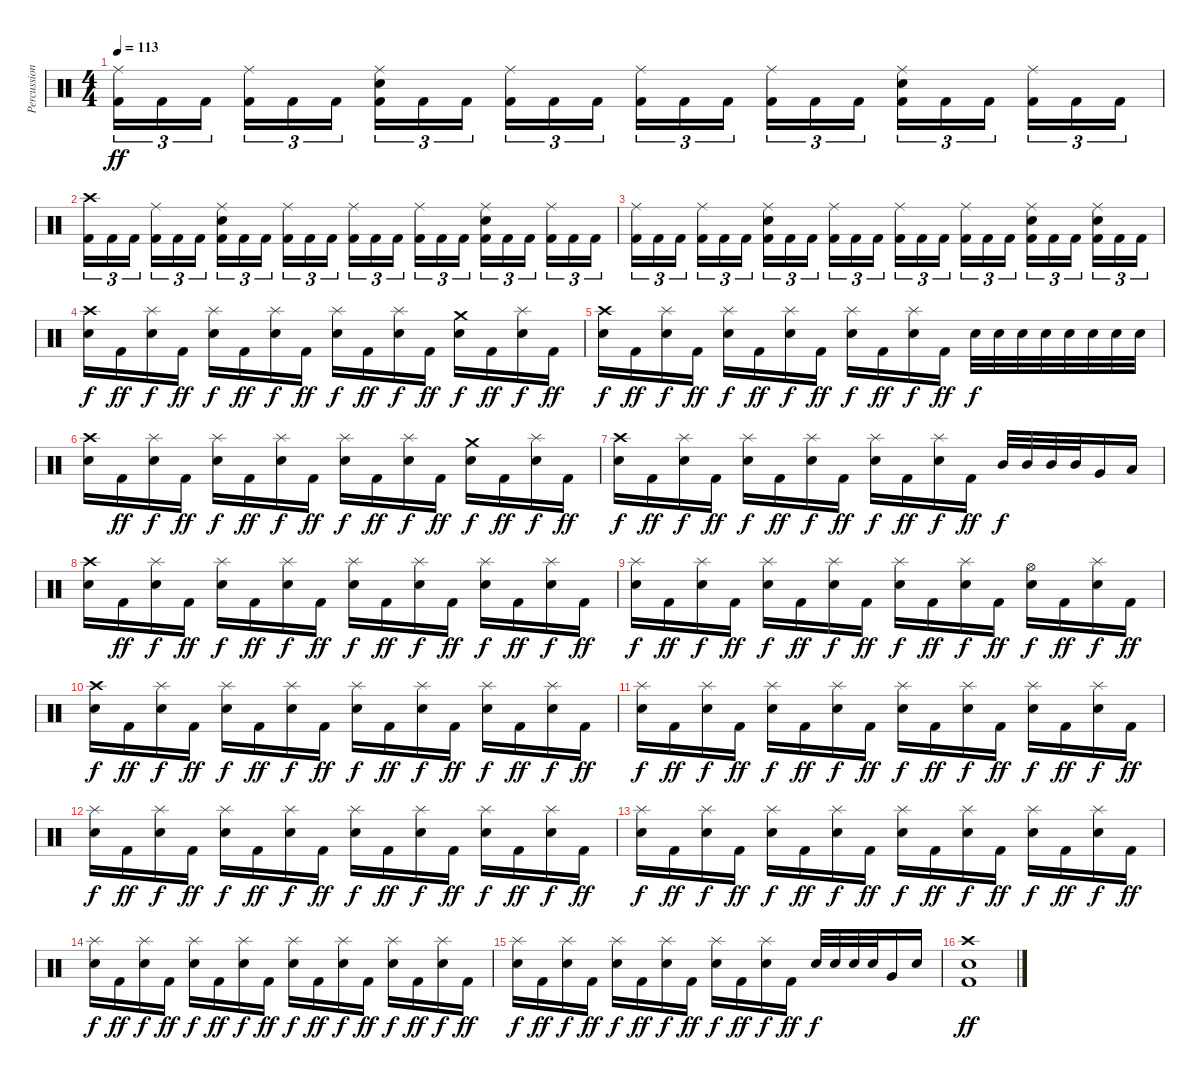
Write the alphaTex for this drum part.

\track ("Percussion" "Percussion") {instrument percussion}
\staff {score}
\articulation defaults
\ts (4 4)
\tempo 113
\clef neutral
\ks c
("Ride (middle)" "Kick (hit) 2").16{tu (3 2) dy ff} "Kick (hit) 2".16{tu (3 2)} "Kick (hit) 2".16{tu (3 2)} ("Ride (middle)" "Kick (hit) 2").16{tu (3 2)} "Kick (hit) 2".16{tu (3 2)} "Kick (hit) 2".16{tu (3 2)} ("Ride (middle)" "Electric Snare (hit)" "Kick (hit) 2").16{tu (3 2)} "Kick (hit) 2".16{tu (3 2)} "Kick (hit) 2".16{tu (3 2)} ("Ride (middle)" "Kick (hit) 2").16{tu (3 2)} "Kick (hit) 2".16{tu (3 2)} "Kick (hit) 2".16{tu (3 2)} ("Ride (middle)" "Kick (hit) 2").16{tu (3 2)} "Kick (hit) 2".16{tu (3 2)} "Kick (hit) 2".16{tu (3 2)} ("Ride (middle)" "Kick (hit) 2").16{tu (3 2)} "Kick (hit) 2".16{tu (3 2)} "Kick (hit) 2".16{tu (3 2)} ("Ride (middle)" "Electric Snare (hit)" "Kick (hit) 2").16{tu (3 2)} "Kick (hit) 2".16{tu (3 2)} "Kick (hit) 2".16{tu (3 2)} ("Ride (middle)" "Kick (hit) 2").16{tu (3 2)} "Kick (hit) 2".16{tu (3 2)} "Kick (hit) 2".16{tu (3 2)} |
("Crash high (hit)" "Kick (hit) 2").16{tu (3 2)} "Kick (hit) 2".16{tu (3 2)} "Kick (hit) 2".16{tu (3 2)} ("Ride (middle)" "Kick (hit) 2").16{tu (3 2)} "Kick (hit) 2".16{tu (3 2)} "Kick (hit) 2".16{tu (3 2)} ("Ride (middle)" "Electric Snare (hit)" "Kick (hit) 2").16{tu (3 2)} "Kick (hit) 2".16{tu (3 2)} "Kick (hit) 2".16{tu (3 2)} ("Ride (middle)" "Kick (hit) 2").16{tu (3 2)} "Kick (hit) 2".16{tu (3 2)} "Kick (hit) 2".16{tu (3 2)} ("Ride (middle)" "Kick (hit) 2").16{tu (3 2)} "Kick (hit) 2".16{tu (3 2)} "Kick (hit) 2".16{tu (3 2)} ("Ride (middle)" "Kick (hit) 2").16{tu (3 2)} "Kick (hit) 2".16{tu (3 2)} "Kick (hit) 2".16{tu (3 2)} ("Ride (middle)" "Electric Snare (hit)" "Kick (hit) 2").16{tu (3 2)} "Kick (hit) 2".16{tu (3 2)} "Kick (hit) 2".16{tu (3 2)} ("Ride (middle)" "Kick (hit) 2").16{tu (3 2)} "Kick (hit) 2".16{tu (3 2)} "Kick (hit) 2".16{tu (3 2)} |
("Ride (middle)" "Kick (hit) 2").16{tu (3 2)} "Kick (hit) 2".16{tu (3 2)} "Kick (hit) 2".16{tu (3 2)} ("Ride (middle)" "Kick (hit) 2").16{tu (3 2)} "Kick (hit) 2".16{tu (3 2)} "Kick (hit) 2".16{tu (3 2)} ("Ride (middle)" "Electric Snare (hit)" "Kick (hit) 2").16{tu (3 2)} "Kick (hit) 2".16{tu (3 2)} "Kick (hit) 2".16{tu (3 2)} ("Ride (middle)" "Kick (hit) 2").16{tu (3 2)} "Kick (hit) 2".16{tu (3 2)} "Kick (hit) 2".16{tu (3 2)} ("Ride (middle)" "Kick (hit) 2").16{tu (3 2)} "Kick (hit) 2".16{tu (3 2)} "Kick (hit) 2".16{tu (3 2)} ("Ride (middle)" "Kick (hit) 2").16{tu (3 2)} "Kick (hit) 2".16{tu (3 2)} "Kick (hit) 2".16{tu (3 2)} ("Ride (middle)" "Electric Snare (hit)" "Kick (hit) 2").16{tu (3 2)} "Kick (hit) 2".16{tu (3 2)} "Kick (hit) 2".16{tu (3 2)} ("Ride (middle)" "Electric Snare (hit)" "Kick (hit) 2").16{tu (3 2)} "Kick (hit) 2".16{tu (3 2)} "Kick (hit) 2".16{tu (3 2)} |
("Crash high (hit)" "Electric Snare (hit)").16{dy f} "Kick (hit) 2".16{dy ff} ("Splash (hit)" "Electric Snare (hit)").16{dy f} "Kick (hit) 2".16{dy ff} ("Splash (hit)" "Electric Snare (hit)").16{dy f} "Kick (hit) 2".16{dy ff} ("Splash (hit)" "Electric Snare (hit)").16{dy f} "Kick (hit) 2".16{dy ff} ("Splash (hit)" "Electric Snare (hit)").16{dy f} "Kick (hit) 2".16{dy ff} ("Splash (hit)" "Electric Snare (hit)").16{dy f} "Kick (hit) 2".16{dy ff} ("Crash medium (hit)" "Electric Snare (hit)").16{dy f} "Kick (hit) 2".16{dy ff} ("Splash (hit)" "Electric Snare (hit)").16{dy f} "Kick (hit) 2".16{dy ff} |
("Crash high (hit)" "Electric Snare (hit)").16{dy f} "Kick (hit) 2".16{dy ff} ("Splash (hit)" "Electric Snare (hit)").16{dy f} "Kick (hit) 2".16{dy ff} ("Splash (hit)" "Electric Snare (hit)").16{dy f} "Kick (hit) 2".16{dy ff} ("Splash (hit)" "Electric Snare (hit)").16{dy f} "Kick (hit) 2".16{dy ff} ("Splash (hit)" "Electric Snare (hit)").16{dy f} "Kick (hit) 2".16{dy ff} ("Splash (hit)" "Electric Snare (hit)").16{dy f} "Kick (hit) 2".16{dy ff} "Electric Snare (hit)".32{dy f} "Electric Snare (hit)".32 "Electric Snare (hit)".32 "Electric Snare (hit)".32 "Electric Snare (hit)".32 "Electric Snare (hit)".32 "Electric Snare (hit)".32 "Electric Snare (hit)".32 |
("Crash high (hit)" "Electric Snare (hit)").16 "Kick (hit) 2".16{dy ff} ("Splash (hit)" "Electric Snare (hit)").16{dy f} "Kick (hit) 2".16{dy ff} ("Splash (hit)" "Electric Snare (hit)").16{dy f} "Kick (hit) 2".16{dy ff} ("Splash (hit)" "Electric Snare (hit)").16{dy f} "Kick (hit) 2".16{dy ff} ("Splash (hit)" "Electric Snare (hit)").16{dy f} "Kick (hit) 2".16{dy ff} ("Splash (hit)" "Electric Snare (hit)").16{dy f} "Kick (hit) 2".16{dy ff} ("Crash medium (hit)" "Electric Snare (hit)").16{dy f} "Kick (hit) 2".16{dy ff} ("Splash (hit)" "Electric Snare (hit)").16{dy f} "Kick (hit) 2".16{dy ff} |
("Crash high (hit)" "Electric Snare (hit)").16{dy f} "Kick (hit) 2".16{dy ff} ("Splash (hit)" "Electric Snare (hit)").16{dy f} "Kick (hit) 2".16{dy ff} ("Splash (hit)" "Electric Snare (hit)").16{dy f} "Kick (hit) 2".16{dy ff} ("Splash (hit)" "Electric Snare (hit)").16{dy f} "Kick (hit) 2".16{dy ff} ("Splash (hit)" "Electric Snare (hit)").16{dy f} "Kick (hit) 2".16{dy ff} ("Splash (hit)" "Electric Snare (hit)").16{dy f} "Kick (hit) 2".16{dy ff} "Mid Tom (hit)".32{dy f} "Mid Tom (hit)".32 "Mid Tom (hit)".32 "Mid Tom (hit)".32 "Very Low Tom (hit)".16 "Low Tom (hit)".16 |
("Crash high (hit)" "Electric Snare (hit)").16 "Kick (hit) 2".16{dy ff} ("Splash (hit)" "Electric Snare (hit)").16{dy f} "Kick (hit) 2".16{dy ff} ("Splash (hit)" "Electric Snare (hit)").16{dy f} "Kick (hit) 2".16{dy ff} ("Splash (hit)" "Electric Snare (hit)").16{dy f} "Kick (hit) 2".16{dy ff} ("Splash (hit)" "Electric Snare (hit)").16{dy f} "Kick (hit) 2".16{dy ff} ("Splash (hit)" "Electric Snare (hit)").16{dy f} "Kick (hit) 2".16{dy ff} ("Splash (hit)" "Electric Snare (hit)").16{dy f} "Kick (hit) 2".16{dy ff} ("Splash (hit)" "Electric Snare (hit)").16{dy f} "Kick (hit) 2".16{dy ff} |
("Splash (hit)" "Electric Snare (hit)").16{dy f} "Kick (hit) 2".16{dy ff} ("Splash (hit)" "Electric Snare (hit)").16{dy f} "Kick (hit) 2".16{dy ff} ("Splash (hit)" "Electric Snare (hit)").16{dy f} "Kick (hit) 2".16{dy ff} ("Splash (hit)" "Electric Snare (hit)").16{dy f} "Kick (hit) 2".16{dy ff} ("Splash (hit)" "Electric Snare (hit)").16{dy f} "Kick (hit) 2".16{dy ff} ("Splash (hit)" "Electric Snare (hit)").16{dy f} "Kick (hit) 2".16{dy ff} ("Hi-Hat (open)" "Electric Snare (hit)").16{dy f} "Kick (hit) 2".16{dy ff} ("Splash (hit)" "Electric Snare (hit)").16{dy f} "Kick (hit) 2".16{dy ff} |
("Crash high (hit)" "Electric Snare (hit)").16{dy f} "Kick (hit) 2".16{dy ff} ("Splash (hit)" "Electric Snare (hit)").16{dy f} "Kick (hit) 2".16{dy ff} ("Splash (hit)" "Electric Snare (hit)").16{dy f} "Kick (hit) 2".16{dy ff} ("Splash (hit)" "Electric Snare (hit)").16{dy f} "Kick (hit) 2".16{dy ff} ("Splash (hit)" "Electric Snare (hit)").16{dy f} "Kick (hit) 2".16{dy ff} ("Splash (hit)" "Electric Snare (hit)").16{dy f} "Kick (hit) 2".16{dy ff} ("Splash (hit)" "Electric Snare (hit)").16{dy f} "Kick (hit) 2".16{dy ff} ("Splash (hit)" "Electric Snare (hit)").16{dy f} "Kick (hit) 2".16{dy ff} |
("Splash (hit)" "Electric Snare (hit)").16{dy f} "Kick (hit) 2".16{dy ff} ("Splash (hit)" "Electric Snare (hit)").16{dy f} "Kick (hit) 2".16{dy ff} ("Splash (hit)" "Electric Snare (hit)").16{dy f} "Kick (hit) 2".16{dy ff} ("Splash (hit)" "Electric Snare (hit)").16{dy f} "Kick (hit) 2".16{dy ff} ("Splash (hit)" "Electric Snare (hit)").16{dy f} "Kick (hit) 2".16{dy ff} ("Splash (hit)" "Electric Snare (hit)").16{dy f} "Kick (hit) 2".16{dy ff} ("Splash (hit)" "Electric Snare (hit)").16{dy f} "Kick (hit) 2".16{dy ff} ("Splash (hit)" "Electric Snare (hit)").16{dy f} "Kick (hit) 2".16{dy ff} |
("Splash (hit)" "Electric Snare (hit)").16{dy f} "Kick (hit) 2".16{dy ff} ("Splash (hit)" "Electric Snare (hit)").16{dy f} "Kick (hit) 2".16{dy ff} ("Splash (hit)" "Electric Snare (hit)").16{dy f} "Kick (hit) 2".16{dy ff} ("Splash (hit)" "Electric Snare (hit)").16{dy f} "Kick (hit) 2".16{dy ff} ("Splash (hit)" "Electric Snare (hit)").16{dy f} "Kick (hit) 2".16{dy ff} ("Splash (hit)" "Electric Snare (hit)").16{dy f} "Kick (hit) 2".16{dy ff} ("Splash (hit)" "Electric Snare (hit)").16{dy f} "Kick (hit) 2".16{dy ff} ("Splash (hit)" "Electric Snare (hit)").16{dy f} "Kick (hit) 2".16{dy ff} |
("Splash (hit)" "Electric Snare (hit)").16{dy f} "Kick (hit) 2".16{dy ff} ("Splash (hit)" "Electric Snare (hit)").16{dy f} "Kick (hit) 2".16{dy ff} ("Splash (hit)" "Electric Snare (hit)").16{dy f} "Kick (hit) 2".16{dy ff} ("Splash (hit)" "Electric Snare (hit)").16{dy f} "Kick (hit) 2".16{dy ff} ("Splash (hit)" "Electric Snare (hit)").16{dy f} "Kick (hit) 2".16{dy ff} ("Splash (hit)" "Electric Snare (hit)").16{dy f} "Kick (hit) 2".16{dy ff} ("Splash (hit)" "Electric Snare (hit)").16{dy f} "Kick (hit) 2".16{dy ff} ("Splash (hit)" "Electric Snare (hit)").16{dy f} "Kick (hit) 2".16{dy ff} |
("Splash (hit)" "Electric Snare (hit)").16{dy f} "Kick (hit) 2".16{dy ff} ("Splash (hit)" "Electric Snare (hit)").16{dy f} "Kick (hit) 2".16{dy ff} ("Splash (hit)" "Electric Snare (hit)").16{dy f} "Kick (hit) 2".16{dy ff} ("Splash (hit)" "Electric Snare (hit)").16{dy f} "Kick (hit) 2".16{dy ff} ("Splash (hit)" "Electric Snare (hit)").16{dy f} "Kick (hit) 2".16{dy ff} ("Splash (hit)" "Electric Snare (hit)").16{dy f} "Kick (hit) 2".16{dy ff} ("Splash (hit)" "Electric Snare (hit)").16{dy f} "Kick (hit) 2".16{dy ff} ("Splash (hit)" "Electric Snare (hit)").16{dy f} "Kick (hit) 2".16{dy ff} |
("Splash (hit)" "Electric Snare (hit)").16{dy f} "Kick (hit) 2".16{dy ff} ("Splash (hit)" "Electric Snare (hit)").16{dy f} "Kick (hit) 2".16{dy ff} ("Splash (hit)" "Electric Snare (hit)").16{dy f} "Kick (hit) 2".16{dy ff} ("Splash (hit)" "Electric Snare (hit)").16{dy f} "Kick (hit) 2".16{dy ff} ("Splash (hit)" "Electric Snare (hit)").16{dy f} "Kick (hit) 2".16{dy ff} ("Splash (hit)" "Electric Snare (hit)").16{dy f} "Kick (hit) 2".16{dy ff} "Electric Snare (hit)".32{dy f} "Electric Snare (hit)".32 "Electric Snare (hit)".32 "Electric Snare (hit)".32 "Very Low Tom (hit)".16 "Electric Snare (hit)".16 |
("Crash high (hit)" "Electric Snare (hit)" "Kick (hit) 2").1{dy ff}
